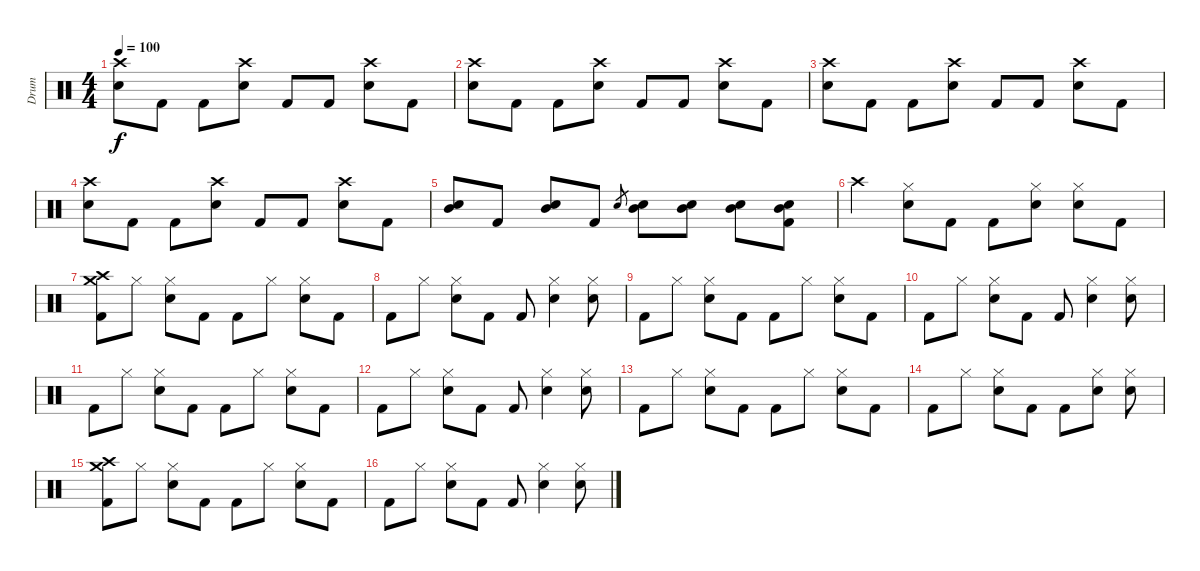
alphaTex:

\track ("Drum" "Drum") {instrument percussion}
\staff {score}
\articulation defaults
\ts (4 4)
\tempo 100
\clef neutral
\ks c
("Crash high (hit)" "Electric Snare (hit)").8{dy f} "Kick (hit) 2".8 "Kick (hit) 2".8 ("Crash high (hit)" "Electric Snare (hit)").8 "Kick (hit) 2".8 "Kick (hit) 2".8 ("Crash high (hit)" "Electric Snare (hit)").8 "Kick (hit) 2".8 |
("Crash high (hit)" "Electric Snare (hit)").8 "Kick (hit) 2".8 "Kick (hit) 2".8 ("Crash high (hit)" "Electric Snare (hit)").8 "Kick (hit) 2".8 "Kick (hit) 2".8 ("Crash high (hit)" "Electric Snare (hit)").8 "Kick (hit) 2".8 |
("Crash high (hit)" "Electric Snare (hit)").8 "Kick (hit) 2".8 "Kick (hit) 2".8 ("Crash high (hit)" "Electric Snare (hit)").8 "Kick (hit) 2".8 "Kick (hit) 2".8 ("Crash high (hit)" "Electric Snare (hit)").8 "Kick (hit) 2".8 |
("Crash high (hit)" "Electric Snare (hit)").8 "Kick (hit) 2".8 "Kick (hit) 2".8 ("Crash high (hit)" "Electric Snare (hit)").8 "Kick (hit) 2".8 "Kick (hit) 2".8 ("Crash high (hit)" "Electric Snare (hit)").8 "Kick (hit) 2".8 |
("Electric Snare (hit)" "Mid Tom (hit)").8 "Kick (hit) 2".8 ("Electric Snare (hit)" "Mid Tom (hit)").8 "Kick (hit) 2".8 "Electric Snare (hit)".8{gr} ("Electric Snare (hit)" "Mid Tom (hit)").8 ("Electric Snare (hit)" "Mid Tom (hit)").8 ("Electric Snare (hit)" "Mid Tom (hit)").8 ("Electric Snare (hit)" "Mid Tom (hit)" "Kick (hit) 2").8 |
"Crash high (hit)".4 ("Hi-Hat (closed)" "Electric Snare (hit)").8 "Kick (hit) 2".8 "Kick (hit) 2".8 ("Hi-Hat (closed)" "Electric Snare (hit)").8 ("Hi-Hat (closed)" "Electric Snare (hit)").8 "Kick (hit) 2".8 |
("Crash high (hit)" "Crash medium (hit)" "Kick (hit) 2").8 "Hi-Hat (closed)".8 ("Hi-Hat (closed)" "Electric Snare (hit)").8 "Kick (hit) 2".8 "Kick (hit) 2".8 "Hi-Hat (closed)".8 ("Hi-Hat (closed)" "Electric Snare (hit)").8 "Kick (hit) 2".8 |
"Kick (hit) 2".8 "Hi-Hat (closed)".8 ("Hi-Hat (closed)" "Electric Snare (hit)").8 "Kick (hit) 2".8 "Kick (hit) 2".8 ("Hi-Hat (closed)" "Electric Snare (hit)").4 ("Hi-Hat (closed)" "Electric Snare (hit)").8 |
"Kick (hit) 2".8 "Hi-Hat (closed)".8 ("Hi-Hat (closed)" "Electric Snare (hit)").8 "Kick (hit) 2".8 "Kick (hit) 2".8 "Hi-Hat (closed)".8 ("Hi-Hat (closed)" "Electric Snare (hit)").8 "Kick (hit) 2".8 |
"Kick (hit) 2".8 "Hi-Hat (closed)".8 ("Hi-Hat (closed)" "Electric Snare (hit)").8 "Kick (hit) 2".8 "Kick (hit) 2".8 ("Hi-Hat (closed)" "Electric Snare (hit)").4 ("Hi-Hat (closed)" "Electric Snare (hit)").8 |
"Kick (hit) 2".8 "Hi-Hat (closed)".8 ("Hi-Hat (closed)" "Electric Snare (hit)").8 "Kick (hit) 2".8 "Kick (hit) 2".8 "Hi-Hat (closed)".8 ("Hi-Hat (closed)" "Electric Snare (hit)").8 "Kick (hit) 2".8 |
"Kick (hit) 2".8 "Hi-Hat (closed)".8 ("Hi-Hat (closed)" "Electric Snare (hit)").8 "Kick (hit) 2".8 "Kick (hit) 2".8 ("Hi-Hat (closed)" "Electric Snare (hit)").4 ("Hi-Hat (closed)" "Electric Snare (hit)").8 |
"Kick (hit) 2".8 "Hi-Hat (closed)".8 ("Hi-Hat (closed)" "Electric Snare (hit)").8 "Kick (hit) 2".8 "Kick (hit) 2".8 "Hi-Hat (closed)".8 ("Hi-Hat (closed)" "Electric Snare (hit)").8 "Kick (hit) 2".8 |
"Kick (hit) 2".8 "Hi-Hat (closed)".8 ("Hi-Hat (closed)" "Electric Snare (hit)").8 "Kick (hit) 2".8 "Kick (hit) 2".8 ("Hi-Hat (closed)" "Electric Snare (hit)").8 ("Hi-Hat (closed)" "Electric Snare (hit)").8 |
("Crash high (hit)" "Crash medium (hit)" "Kick (hit) 2").8 "Hi-Hat (closed)".8 ("Hi-Hat (closed)" "Electric Snare (hit)").8 "Kick (hit) 2".8 "Kick (hit) 2".8 "Hi-Hat (closed)".8 ("Hi-Hat (closed)" "Electric Snare (hit)").8 "Kick (hit) 2".8 |
"Kick (hit) 2".8 "Hi-Hat (closed)".8 ("Hi-Hat (closed)" "Electric Snare (hit)").8 "Kick (hit) 2".8 "Kick (hit) 2".8 ("Hi-Hat (closed)" "Electric Snare (hit)").4 ("Hi-Hat (closed)" "Electric Snare (hit)").8
